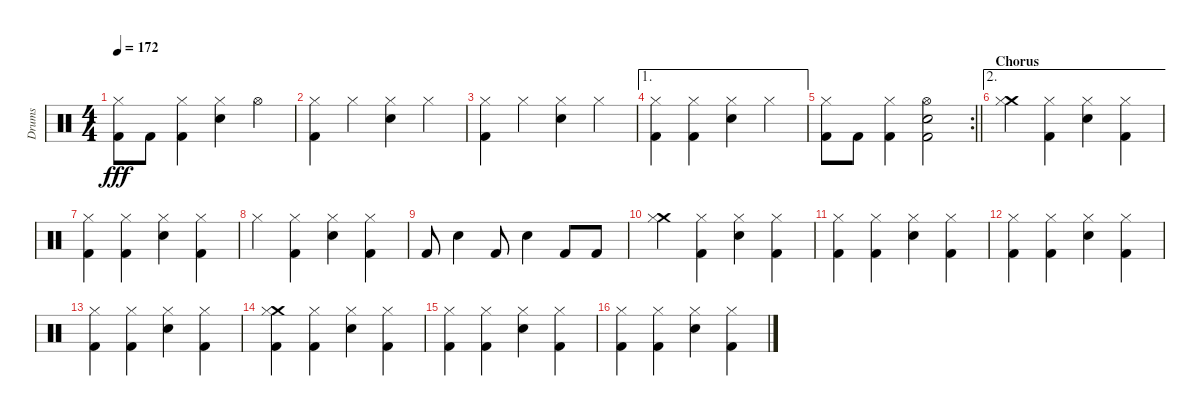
\track ("Drums" "Drums") {instrument percussion}
\staff {score}
\articulation defaults
\ts (4 4)
\tempo 172
\clef neutral
\ks c
("Hi-Hat (closed)" "Kick (hit) 2").8{dy fff} "Kick (hit) 2".8 ("Hi-Hat (closed)" "Kick (hit) 2").4 ("Hi-Hat (closed)" "Electric Snare (hit)").4 "Hi-Hat (open)".4 |
("Hi-Hat (closed)" "Kick (hit) 2").4 "Hi-Hat (closed)".4 ("Hi-Hat (closed)" "Electric Snare (hit)").4 "Hi-Hat (closed)".4 |
("Hi-Hat (closed)" "Kick (hit) 2").4 "Hi-Hat (closed)".4 ("Hi-Hat (closed)" "Electric Snare (hit)").4 "Hi-Hat (closed)".4 |
\ae 1
("Hi-Hat (closed)" "Kick (hit) 2").4 ("Hi-Hat (closed)" "Kick (hit) 2").4 ("Hi-Hat (closed)" "Electric Snare (hit)").4 "Hi-Hat (closed)".4 |
\rc 2
\barLineRight lightlight
("Hi-Hat (closed)" "Kick (hit) 2").8 "Kick (hit) 2".8 ("Hi-Hat (closed)" "Kick (hit) 2").4 ("Hi-Hat (open)" "Electric Snare (hit)" "Kick (hit) 2").2 |
\ae 2
\section ("" "Chorus")
("Crash medium (hit)" "Hi-Hat (closed)").4 ("Hi-Hat (closed)" "Kick (hit) 2").4 ("Hi-Hat (closed)" "Electric Snare (hit)").4 ("Hi-Hat (closed)" "Kick (hit) 2").4 |
("Hi-Hat (closed)" "Kick (hit) 2").4 ("Hi-Hat (closed)" "Kick (hit) 2").4 ("Hi-Hat (closed)" "Electric Snare (hit)").4 ("Hi-Hat (closed)" "Kick (hit) 2").4 |
"Hi-Hat (closed)".4 ("Hi-Hat (closed)" "Kick (hit) 2").4 ("Hi-Hat (closed)" "Electric Snare (hit)").4 ("Hi-Hat (closed)" "Kick (hit) 2").4 |
"Kick (hit) 2".8 "Electric Snare (hit)".4 "Kick (hit) 2".8 "Electric Snare (hit)".4 "Kick (hit) 2".8 "Kick (hit) 2".8 |
("Crash medium (hit)" "Hi-Hat (closed)").4 ("Hi-Hat (closed)" "Kick (hit) 2").4 ("Hi-Hat (closed)" "Electric Snare (hit)").4 ("Hi-Hat (closed)" "Kick (hit) 2").4 |
("Hi-Hat (closed)" "Kick (hit) 2").4 ("Hi-Hat (closed)" "Kick (hit) 2").4 ("Hi-Hat (closed)" "Electric Snare (hit)").4 ("Hi-Hat (closed)" "Kick (hit) 2").4 |
("Hi-Hat (closed)" "Kick (hit) 2").4 ("Hi-Hat (closed)" "Kick (hit) 2").4 ("Hi-Hat (closed)" "Electric Snare (hit)").4 ("Hi-Hat (closed)" "Kick (hit) 2").4 |
("Hi-Hat (closed)" "Kick (hit) 2").4 ("Hi-Hat (closed)" "Kick (hit) 2").4 ("Hi-Hat (closed)" "Electric Snare (hit)").4 ("Hi-Hat (closed)" "Kick (hit) 2").4 |
("Crash medium (hit)" "Hi-Hat (closed)" "Kick (hit) 2").4 ("Hi-Hat (closed)" "Kick (hit) 2").4 ("Hi-Hat (closed)" "Electric Snare (hit)").4 ("Hi-Hat (closed)" "Kick (hit) 2").4 |
("Hi-Hat (closed)" "Kick (hit) 2").4 ("Hi-Hat (closed)" "Kick (hit) 2").4 ("Hi-Hat (closed)" "Electric Snare (hit)").4 ("Hi-Hat (closed)" "Kick (hit) 2").4 |
("Hi-Hat (closed)" "Kick (hit) 2").4 ("Hi-Hat (closed)" "Kick (hit) 2").4 ("Hi-Hat (closed)" "Electric Snare (hit)").4 ("Hi-Hat (closed)" "Kick (hit) 2").4
